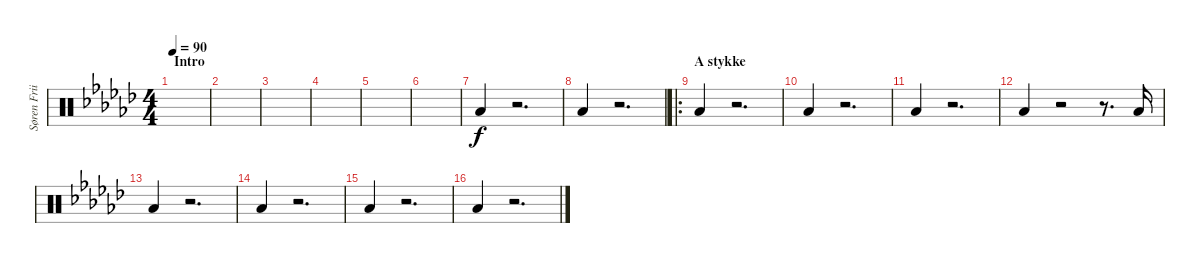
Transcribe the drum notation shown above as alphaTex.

\track ("Søren Friis (Drums)" "Søren Frii") {instrument percussion}
\staff {score}
\articulation defaults
\ts (4 4)
\section ("" "Intro")
\tempo 90
\clef neutral
\ks gb
|
|
|
|
|
|
"Low Floor Tom (hit)".4 r.2{d} |
"Low Floor Tom (hit)".4 r.2{d} |
\ro
\section ("" "A stykke")
"Low Floor Tom (hit)".4 r.2{d} |
"Low Floor Tom (hit)".4 r.2{d} |
"Low Floor Tom (hit)".4 r.2{d} |
"Low Floor Tom (hit)".4 r.2 r.8{d} "Low Floor Tom (hit)".16 |
"Low Floor Tom (hit)".4 r.2{d} |
"Low Floor Tom (hit)".4 r.2{d} |
"Low Floor Tom (hit)".4 r.2{d} |
"Low Floor Tom (hit)".4 r.2{d}
